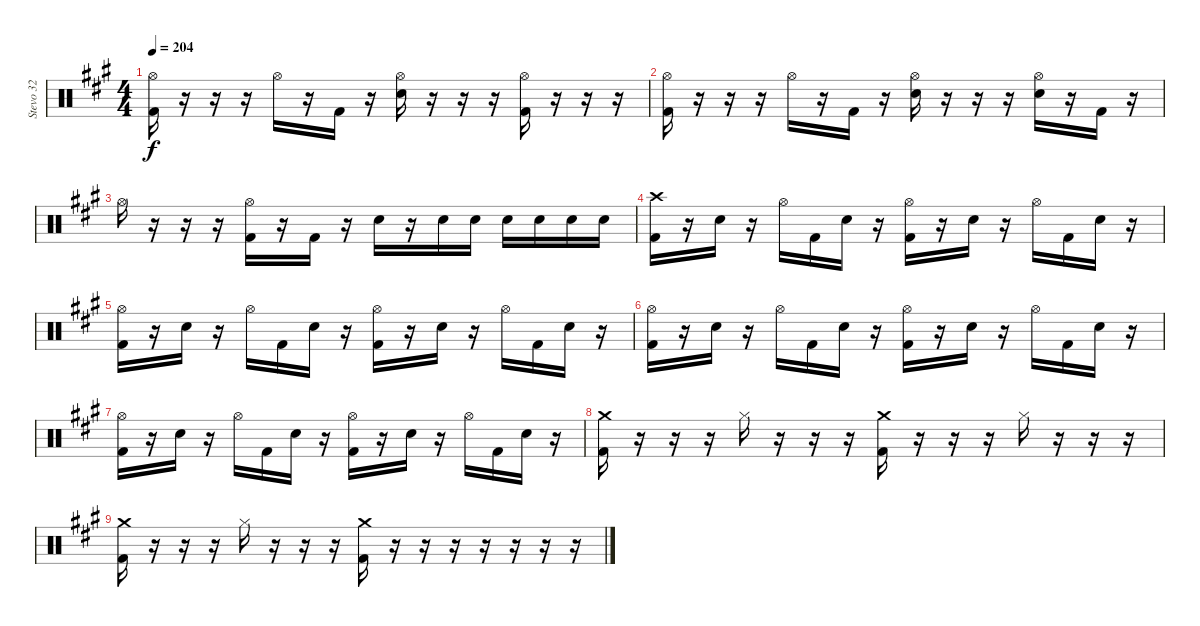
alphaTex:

\track ("Stevo 32" "Stevo 32") {instrument percussion}
\staff {score}
\articulation defaults
\ts (4 4)
\tempo 204
\clef neutral
\ks a
("Hi-Hat (open)" "Kick (hit) 2").16{dy f} r.16 r.16 r.16 "Hi-Hat (open)".16 r.16 "Kick (hit) 2".16 r.16 ("Hi-Hat (open)" "Snare (hit) 2").16 r.16 r.16 r.16 ("Hi-Hat (open)" "Kick (hit) 2").16 r.16 r.16 r.16 |
("Hi-Hat (open)" "Kick (hit) 2").16 r.16 r.16 r.16 "Hi-Hat (open)".16 r.16 "Kick (hit) 2".16 r.16 ("Hi-Hat (open)" "Snare (hit) 2").16 r.16 r.16 r.16 ("Hi-Hat (open)" "Snare (hit) 2").16 r.16 "Kick (hit) 2".16 r.16 |
"Hi-Hat (open)".16 r.16 r.16 r.16 ("Hi-Hat (open)" "Kick (hit) 2").16 r.16 "Kick (hit) 2".16 r.16 "Snare (hit) 2".16 r.16 "Snare (hit) 2".16 "Snare (hit) 2".16 "Snare (hit) 2".16 "Snare (hit) 2".16 "Snare (hit) 2".16 "Snare (hit) 2".16 |
("Crash high (hit)" "Kick (hit) 2").16 r.16 "Snare (hit) 2".16 r.16 "Hi-Hat (open)".16 "Kick (hit) 2".16 "Snare (hit) 2".16 r.16 ("Hi-Hat (open)" "Kick (hit) 2").16 r.16 "Snare (hit) 2".16 r.16 "Hi-Hat (open)".16 "Kick (hit) 2".16 "Snare (hit) 2".16 r.16 |
("Hi-Hat (open)" "Kick (hit) 2").16 r.16 "Snare (hit) 2".16 r.16 "Hi-Hat (open)".16 "Kick (hit) 2".16 "Snare (hit) 2".16 r.16 ("Hi-Hat (open)" "Kick (hit) 2").16 r.16 "Snare (hit) 2".16 r.16 "Hi-Hat (open)".16 "Kick (hit) 2".16 "Snare (hit) 2".16 r.16 |
("Hi-Hat (open)" "Kick (hit) 2").16 r.16 "Snare (hit) 2".16 r.16 "Hi-Hat (open)".16 "Kick (hit) 2".16 "Snare (hit) 2".16 r.16 ("Hi-Hat (open)" "Kick (hit) 2").16 r.16 "Snare (hit) 2".16 r.16 "Hi-Hat (open)".16 "Kick (hit) 2".16 "Snare (hit) 2".16 r.16 |
("Hi-Hat (open)" "Kick (hit) 2").16 r.16 "Snare (hit) 2".16 r.16 "Hi-Hat (open)".16 "Kick (hit) 2".16 "Snare (hit) 2".16 r.16 ("Hi-Hat (open)" "Kick (hit) 2").16 r.16 "Snare (hit) 2".16 r.16 "Hi-Hat (open)".16 "Kick (hit) 2".16 "Snare (hit) 2".16 r.16 |
("Crash medium (hit)" "Kick (hit) 2").16 r.16 r.16 r.16 "Hi-Hat (closed)".16 r.16 r.16 r.16 ("Crash medium (hit)" "Kick (hit) 2").16 r.16 r.16 r.16 "Hi-Hat (closed)".16 r.16 r.16 r.16 |
("Crash medium (hit)" "Kick (hit) 2").16 r.16 r.16 r.16 "Hi-Hat (closed)".16 r.16 r.16 r.16 ("Crash medium (hit)" "Kick (hit) 2").16 r.16 r.16 r.16 r.16 r.16 r.16 r.16
